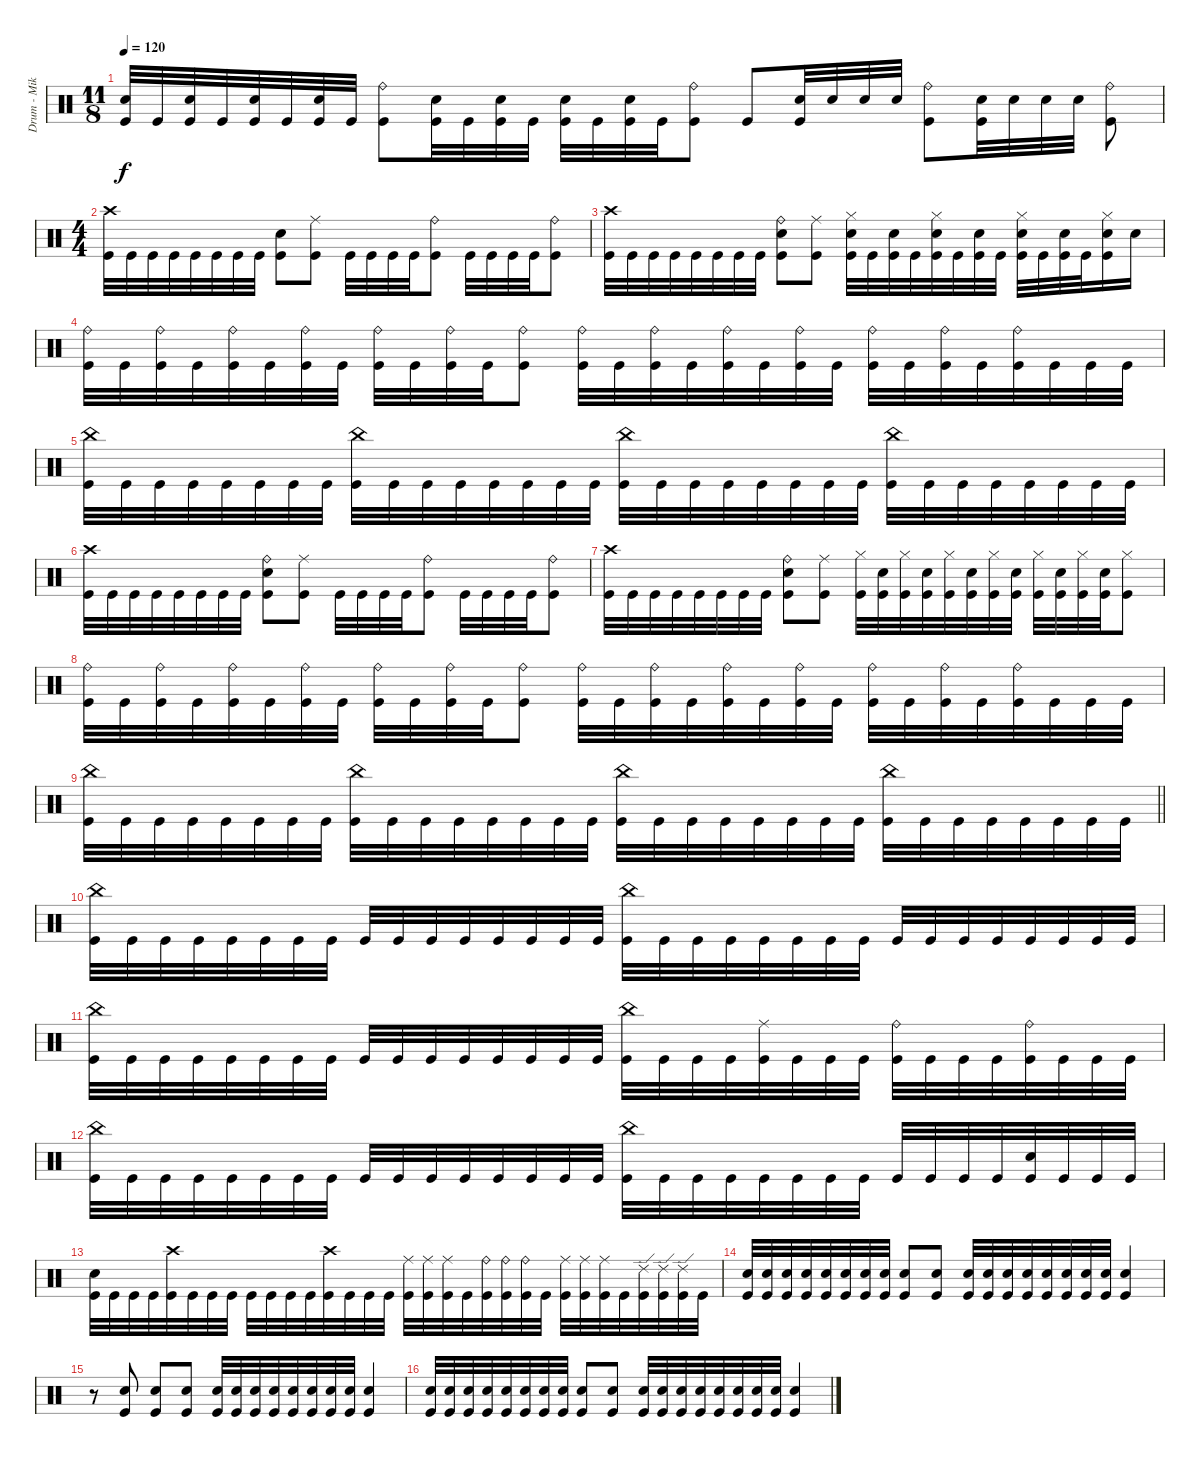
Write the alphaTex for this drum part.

\track ("Drum - Mike Collins" "Drum - Mik") {instrument percussion}
\staff {score}
\articulation defaults
\ts (11 8)
\tempo 120
\clef neutral
\ks c
("Electric Snare (hit)" "Kick (hit)").32{dy f} "Kick (hit)".32 ("Electric Snare (hit)" "Kick (hit)").32 "Kick (hit)".32 ("Electric Snare (hit)" "Kick (hit)").32 "Kick (hit)".32 ("Electric Snare (hit)" "Kick (hit)").32 "Kick (hit)".32 ("Ride (bell)" "Kick (hit)").8 ("Electric Snare (hit)" "Kick (hit)").32 "Kick (hit)".32 ("Electric Snare (hit)" "Kick (hit)").32 "Kick (hit)".32 ("Electric Snare (hit)" "Kick (hit)").32 "Kick (hit)".32 ("Electric Snare (hit)" "Kick (hit)").32 "Kick (hit)".32 ("Ride (bell)" "Kick (hit)").8 "Kick (hit)".8 ("Electric Snare (hit)" "Kick (hit)").32 "Electric Snare (hit)".32 "Electric Snare (hit)".32 "Electric Snare (hit)".32 ("Ride (bell)" "Kick (hit)").8 ("Electric Snare (hit)" "Kick (hit)").32 "Electric Snare (hit)".32 "Electric Snare (hit)".32 "Electric Snare (hit)".32 ("Ride (bell)" "Kick (hit)").8 |
\ts (4 4)
("Crash high (hit)" "Kick (hit)").32 "Kick (hit)".32 "Kick (hit)".32 "Kick (hit)".32 "Kick (hit)".32 "Kick (hit)".32 "Kick (hit)".32 "Kick (hit)".32 ("Electric Snare (hit)" "Kick (hit)").8 ("Ride (middle)" "Kick (hit)").8 "Kick (hit)".32 "Kick (hit)".32 "Kick (hit)".32 "Kick (hit)".32 ("Ride (bell)" "Kick (hit)").8 "Kick (hit)".32 "Kick (hit)".32 "Kick (hit)".32 "Kick (hit)".32 ("Ride (bell)" "Kick (hit)").8 |
("Crash high (hit)" "Kick (hit)").32 "Kick (hit)".32 "Kick (hit)".32 "Kick (hit)".32 "Kick (hit)".32 "Kick (hit)".32 "Kick (hit)".32 "Kick (hit)".32 ("Ride (bell)" "Electric Snare (hit)" "Kick (hit)").8 ("Ride (middle)" "Kick (hit)").8 ("Hi-Hat (closed)" "Electric Snare (hit)" "Kick (hit)").32 "Kick (hit)".32 ("Electric Snare (hit)" "Kick (hit)").32 "Kick (hit)".32 ("Hi-Hat (closed)" "Electric Snare (hit)" "Kick (hit)").32 "Kick (hit)".32 ("Electric Snare (hit)" "Kick (hit)").32 "Kick (hit)".32 ("Hi-Hat (closed)" "Electric Snare (hit)" "Kick (hit)").32 "Kick (hit)".32 ("Electric Snare (hit)" "Kick (hit)").32 "Kick (hit)".32 ("Hi-Hat (closed)" "Electric Snare (hit)" "Kick (hit)").16 "Electric Snare (hit)".16 |
("Ride (bell)" "Kick (hit)").32 "Kick (hit)".32 ("Ride (bell)" "Kick (hit)").32 "Kick (hit)".32 ("Ride (bell)" "Kick (hit)").32 "Kick (hit)".32 ("Ride (bell)" "Kick (hit)").32 "Kick (hit)".32 ("Ride (bell)" "Kick (hit)").32 "Kick (hit)".32 ("Ride (bell)" "Kick (hit)").32 "Kick (hit)".32 ("Ride (bell)" "Kick (hit)").8 ("Ride (bell)" "Kick (hit)").32 "Kick (hit)".32 ("Ride (bell)" "Kick (hit)").32 "Kick (hit)".32 ("Ride (bell)" "Kick (hit)").32 "Kick (hit)".32 ("Ride (bell)" "Kick (hit)").32 "Kick (hit)".32 ("Ride (bell)" "Kick (hit)").32 "Kick (hit)".32 ("Ride (bell)" "Kick (hit)").32 "Kick (hit)".32 ("Ride (bell)" "Kick (hit)").32 "Kick (hit)".32 "Kick (hit)".32 "Kick (hit)".32 |
("China (hit)" "Kick (hit)").32 "Kick (hit)".32 "Kick (hit)".32 "Kick (hit)".32 "Kick (hit)".32 "Kick (hit)".32 "Kick (hit)".32 "Kick (hit)".32 ("China (hit)" "Kick (hit)").32 "Kick (hit)".32 "Kick (hit)".32 "Kick (hit)".32 "Kick (hit)".32 "Kick (hit)".32 "Kick (hit)".32 "Kick (hit)".32 ("China (hit)" "Kick (hit)").32 "Kick (hit)".32 "Kick (hit)".32 "Kick (hit)".32 "Kick (hit)".32 "Kick (hit)".32 "Kick (hit)".32 "Kick (hit)".32 ("China (hit)" "Kick (hit)").32 "Kick (hit)".32 "Kick (hit)".32 "Kick (hit)".32 "Kick (hit)".32 "Kick (hit)".32 "Kick (hit)".32 "Kick (hit)".32 |
("Crash high (hit)" "Kick (hit)").32 "Kick (hit)".32 "Kick (hit)".32 "Kick (hit)".32 "Kick (hit)".32 "Kick (hit)".32 "Kick (hit)".32 "Kick (hit)".32 ("Ride (bell)" "Electric Snare (hit)" "Kick (hit)").8 ("Ride (middle)" "Kick (hit)").8 "Kick (hit)".32 "Kick (hit)".32 "Kick (hit)".32 "Kick (hit)".32 ("Ride (bell)" "Kick (hit)").8 "Kick (hit)".32 "Kick (hit)".32 "Kick (hit)".32 "Kick (hit)".32 ("Ride (bell)" "Kick (hit)").8 |
("Crash high (hit)" "Kick (hit)").32 "Kick (hit)".32 "Kick (hit)".32 "Kick (hit)".32 "Kick (hit)".32 "Kick (hit)".32 "Kick (hit)".32 "Kick (hit)".32 ("Ride (bell)" "Electric Snare (hit)" "Kick (hit)").8 ("Ride (middle)" "Kick (hit)").8 ("Hi-Hat (closed)" "Kick (hit)").32 ("Electric Snare (hit)" "Kick (hit)").32 ("Hi-Hat (closed)" "Kick (hit)").32 ("Electric Snare (hit)" "Kick (hit)").32 ("Hi-Hat (closed)" "Kick (hit)").32 ("Electric Snare (hit)" "Kick (hit)").32 ("Hi-Hat (closed)" "Kick (hit)").32 ("Electric Snare (hit)" "Kick (hit)").32 ("Hi-Hat (closed)" "Kick (hit)").32 ("Electric Snare (hit)" "Kick (hit)").32 ("Hi-Hat (closed)" "Kick (hit)").32 ("Electric Snare (hit)" "Kick (hit)").32 ("Hi-Hat (closed)" "Kick (hit)").8 |
("Ride (bell)" "Kick (hit)").32 "Kick (hit)".32 ("Ride (bell)" "Kick (hit)").32 "Kick (hit)".32 ("Ride (bell)" "Kick (hit)").32 "Kick (hit)".32 ("Ride (bell)" "Kick (hit)").32 "Kick (hit)".32 ("Ride (bell)" "Kick (hit)").32 "Kick (hit)".32 ("Ride (bell)" "Kick (hit)").32 "Kick (hit)".32 ("Ride (bell)" "Kick (hit)").8 ("Ride (bell)" "Kick (hit)").32 "Kick (hit)".32 ("Ride (bell)" "Kick (hit)").32 "Kick (hit)".32 ("Ride (bell)" "Kick (hit)").32 "Kick (hit)".32 ("Ride (bell)" "Kick (hit)").32 "Kick (hit)".32 ("Ride (bell)" "Kick (hit)").32 "Kick (hit)".32 ("Ride (bell)" "Kick (hit)").32 "Kick (hit)".32 ("Ride (bell)" "Kick (hit)").32 "Kick (hit)".32 "Kick (hit)".32 "Kick (hit)".32 |
\barLineRight lightlight
("China (hit)" "Kick (hit)").32 "Kick (hit)".32 "Kick (hit)".32 "Kick (hit)".32 "Kick (hit)".32 "Kick (hit)".32 "Kick (hit)".32 "Kick (hit)".32 ("China (hit)" "Kick (hit)").32 "Kick (hit)".32 "Kick (hit)".32 "Kick (hit)".32 "Kick (hit)".32 "Kick (hit)".32 "Kick (hit)".32 "Kick (hit)".32 ("China (hit)" "Kick (hit)").32 "Kick (hit)".32 "Kick (hit)".32 "Kick (hit)".32 "Kick (hit)".32 "Kick (hit)".32 "Kick (hit)".32 "Kick (hit)".32 ("China (hit)" "Kick (hit)").32 "Kick (hit)".32 "Kick (hit)".32 "Kick (hit)".32 "Kick (hit)".32 "Kick (hit)".32 "Kick (hit)".32 "Kick (hit)".32 |
("China (hit)" "Kick (hit)").32 "Kick (hit)".32 "Kick (hit)".32 "Kick (hit)".32 "Kick (hit)".32 "Kick (hit)".32 "Kick (hit)".32 "Kick (hit)".32 "Kick (hit)".32 "Kick (hit)".32 "Kick (hit)".32 "Kick (hit)".32 "Kick (hit)".32 "Kick (hit)".32 "Kick (hit)".32 "Kick (hit)".32 ("China (hit)" "Kick (hit)").32 "Kick (hit)".32 "Kick (hit)".32 "Kick (hit)".32 "Kick (hit)".32 "Kick (hit)".32 "Kick (hit)".32 "Kick (hit)".32 "Kick (hit)".32 "Kick (hit)".32 "Kick (hit)".32 "Kick (hit)".32 "Kick (hit)".32 "Kick (hit)".32 "Kick (hit)".32 "Kick (hit)".32 |
("China (hit)" "Kick (hit)").32 "Kick (hit)".32 "Kick (hit)".32 "Kick (hit)".32 "Kick (hit)".32 "Kick (hit)".32 "Kick (hit)".32 "Kick (hit)".32 "Kick (hit)".32 "Kick (hit)".32 "Kick (hit)".32 "Kick (hit)".32 "Kick (hit)".32 "Kick (hit)".32 "Kick (hit)".32 "Kick (hit)".32 ("China (hit)" "Kick (hit)").32 "Kick (hit)".32 "Kick (hit)".32 "Kick (hit)".32 ("Ride (middle)" "Kick (hit)").32 "Kick (hit)".32 "Kick (hit)".32 "Kick (hit)".32 ("Ride (bell)" "Kick (hit)").32 "Kick (hit)".32 "Kick (hit)".32 "Kick (hit)".32 ("Ride (bell)" "Kick (hit)").32 "Kick (hit)".32 "Kick (hit)".32 "Kick (hit)".32 |
("China (hit)" "Kick (hit)").32 "Kick (hit)".32 "Kick (hit)".32 "Kick (hit)".32 "Kick (hit)".32 "Kick (hit)".32 "Kick (hit)".32 "Kick (hit)".32 "Kick (hit)".32 "Kick (hit)".32 "Kick (hit)".32 "Kick (hit)".32 "Kick (hit)".32 "Kick (hit)".32 "Kick (hit)".32 "Kick (hit)".32 ("China (hit)" "Kick (hit)").32 "Kick (hit)".32 "Kick (hit)".32 "Kick (hit)".32 "Kick (hit)".32 "Kick (hit)".32 "Kick (hit)".32 "Kick (hit)".32 "Kick (hit)".32 "Kick (hit)".32 "Kick (hit)".32 "Kick (hit)".32 ("Electric Snare (hit)" "Kick (hit)").32 "Kick (hit)".32 "Kick (hit)".32 "Kick (hit)".32 |
("Electric Snare (hit)" "Kick (hit)").32 "Kick (hit)".32 "Kick (hit)".32 "Kick (hit)".32 ("Crash high (hit)" "Kick (hit)").32 "Kick (hit)".32 "Kick (hit)".32 "Kick (hit)".32 "Kick (hit)".32 "Kick (hit)".32 "Kick (hit)".32 "Kick (hit)".32 ("Crash high (hit)" "Kick (hit)").32 "Kick (hit)".32 "Kick (hit)".32 "Kick (hit)".32 ("Ride (middle)" "Kick (hit)").32 ("Ride (middle)" "Kick (hit)").32 ("Ride (middle)" "Kick (hit)").32 "Kick (hit)".32 ("Ride (bell)" "Kick (hit)").32 ("Ride (bell)" "Kick (hit)").32 ("Ride (bell)" "Kick (hit)").32 "Kick (hit)".32 ("Ride (middle)" "Kick (hit)").32 ("Ride (middle)" "Kick (hit)").32 ("Ride (middle)" "Kick (hit)").32 "Kick (hit)".32 ("Ride (edge) 2" "Kick (hit)").32 ("Ride (edge) 2" "Kick (hit)").32 ("Ride (edge) 2" "Kick (hit)").32 "Kick (hit)".32 |
("Electric Snare (hit)" "Kick (hit)").32 ("Electric Snare (hit)" "Kick (hit)").32 ("Electric Snare (hit)" "Kick (hit)").32 ("Electric Snare (hit)" "Kick (hit)").32 ("Electric Snare (hit)" "Kick (hit)").32 ("Electric Snare (hit)" "Kick (hit)").32 ("Electric Snare (hit)" "Kick (hit)").32 ("Electric Snare (hit)" "Kick (hit)").32 ("Electric Snare (hit)" "Kick (hit)").8 ("Electric Snare (hit)" "Kick (hit)").8 ("Electric Snare (hit)" "Kick (hit)").32 ("Electric Snare (hit)" "Kick (hit)").32 ("Electric Snare (hit)" "Kick (hit)").32 ("Electric Snare (hit)" "Kick (hit)").32 ("Electric Snare (hit)" "Kick (hit)").32 ("Electric Snare (hit)" "Kick (hit)").32 ("Electric Snare (hit)" "Kick (hit)").32 ("Electric Snare (hit)" "Kick (hit)").32 ("Electric Snare (hit)" "Kick (hit)").4 |
r.8 ("Electric Snare (hit)" "Kick (hit)").8 ("Electric Snare (hit)" "Kick (hit)").8 ("Electric Snare (hit)" "Kick (hit)").8 ("Electric Snare (hit)" "Kick (hit)").32 ("Electric Snare (hit)" "Kick (hit)").32 ("Electric Snare (hit)" "Kick (hit)").32 ("Electric Snare (hit)" "Kick (hit)").32 ("Electric Snare (hit)" "Kick (hit)").32 ("Electric Snare (hit)" "Kick (hit)").32 ("Electric Snare (hit)" "Kick (hit)").32 ("Electric Snare (hit)" "Kick (hit)").32 ("Electric Snare (hit)" "Kick (hit)").4 |
("Electric Snare (hit)" "Kick (hit)").32 ("Electric Snare (hit)" "Kick (hit)").32 ("Electric Snare (hit)" "Kick (hit)").32 ("Electric Snare (hit)" "Kick (hit)").32 ("Electric Snare (hit)" "Kick (hit)").32 ("Electric Snare (hit)" "Kick (hit)").32 ("Electric Snare (hit)" "Kick (hit)").32 ("Electric Snare (hit)" "Kick (hit)").32 ("Electric Snare (hit)" "Kick (hit)").8 ("Electric Snare (hit)" "Kick (hit)").8 ("Electric Snare (hit)" "Kick (hit)").32 ("Electric Snare (hit)" "Kick (hit)").32 ("Electric Snare (hit)" "Kick (hit)").32 ("Electric Snare (hit)" "Kick (hit)").32 ("Electric Snare (hit)" "Kick (hit)").32 ("Electric Snare (hit)" "Kick (hit)").32 ("Electric Snare (hit)" "Kick (hit)").32 ("Electric Snare (hit)" "Kick (hit)").32 ("Electric Snare (hit)" "Kick (hit)").4
